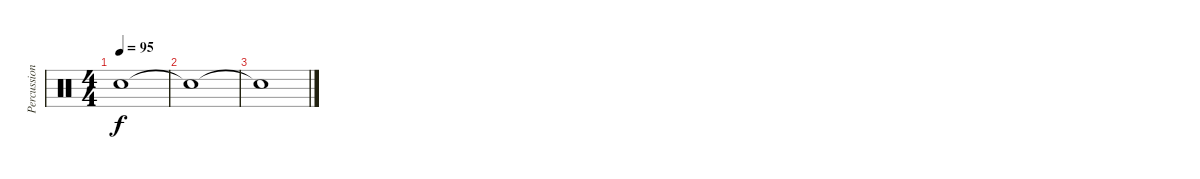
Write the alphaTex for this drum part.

\track ("Percussion" "Percussion") {instrument percussion}
\staff {score}
\articulation defaults
\ts (4 4)
\tempo 95
\clef neutral
\ks c "Snare (hit)"{t}.1{dy f}
|
"Snare (hit)"{t}.1 |
"Snare (hit)"{t}.1
